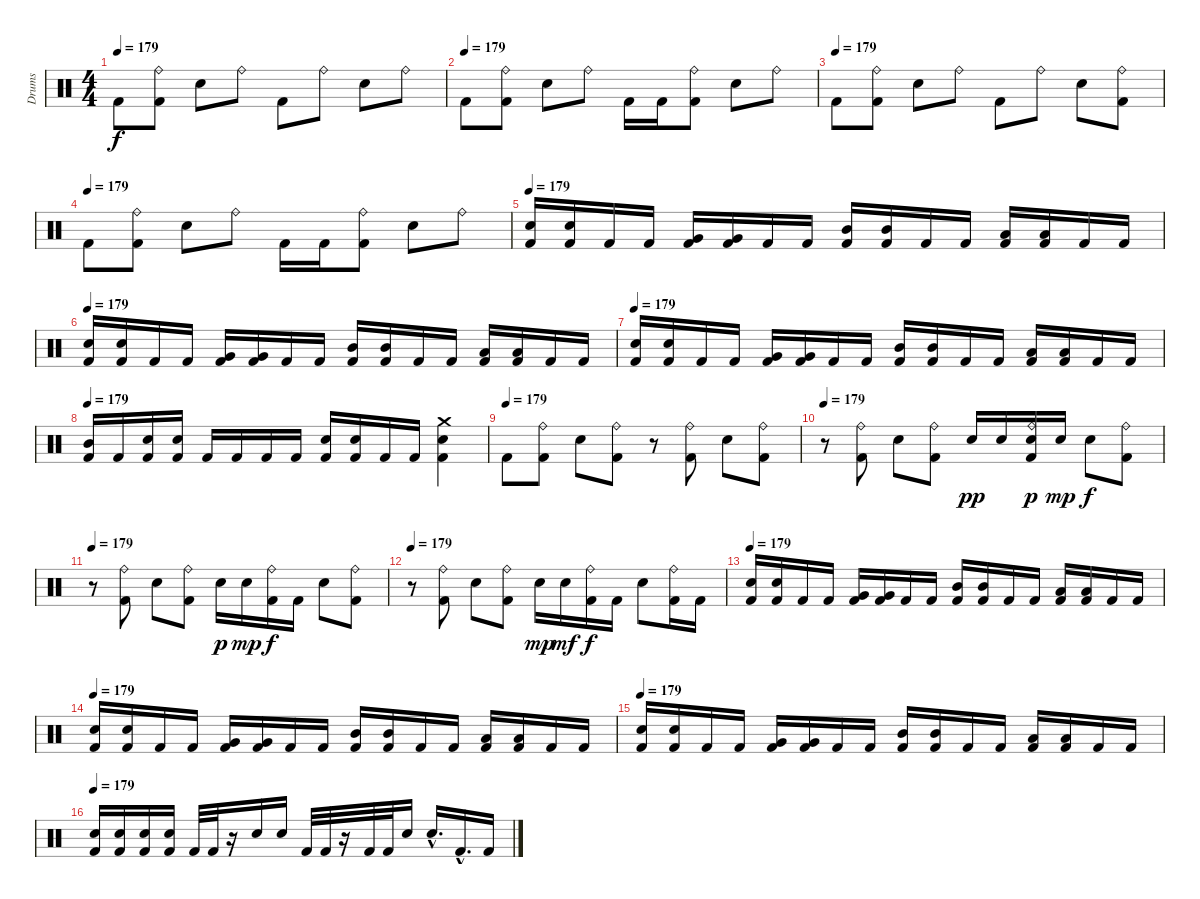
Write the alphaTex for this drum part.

\track ("Drums" "Drums") {instrument percussion}
\staff {score}
\articulation defaults
\ts (4 4)
\tempo 179
\clef neutral
\ks c "Kick (hit) 2".8{dy f}
("Ride (bell)" "Kick (hit) 2").8 "Electric Snare (hit)".8 "Ride (bell)".8 "Kick (hit) 2".8 "Ride (bell)".8 "Electric Snare (hit)".8 "Ride (bell)".8 |
\tempo (179)
"Kick (hit) 2".8 ("Ride (bell)" "Kick (hit) 2").8 "Electric Snare (hit)".8 "Ride (bell)".8 "Kick (hit) 2".16 "Kick (hit) 2".16 ("Ride (bell)" "Kick (hit) 2").8 "Electric Snare (hit)".8 "Ride (bell)".8 |
\tempo (179)
"Kick (hit) 2".8 ("Ride (bell)" "Kick (hit) 2").8 "Electric Snare (hit)".8 "Ride (bell)".8 "Kick (hit) 2".8 "Ride (bell)".8 "Electric Snare (hit)".8 ("Ride (bell)" "Kick (hit) 2").8 |
\tempo (179)
"Kick (hit) 2".8 ("Ride (bell)" "Kick (hit) 2").8 "Electric Snare (hit)".8 "Ride (bell)".8 "Kick (hit) 2".16 "Kick (hit) 2".16 ("Ride (bell)" "Kick (hit) 2").8 "Electric Snare (hit)".8 "Ride (bell)".8 |
\tempo 179
("Electric Snare (hit)" "Kick (hit) 2").16 ("Electric Snare (hit)" "Kick (hit) 2").16 "Kick (hit) 2".16 "Kick (hit) 2".16 ("Very Low Tom (hit)" "Kick (hit) 2").16 ("Very Low Tom (hit)" "Kick (hit) 2").16 "Kick (hit) 2".16 "Kick (hit) 2".16 ("Mid Tom (hit)" "Kick (hit) 2").16 ("Mid Tom (hit)" "Kick (hit) 2").16 "Kick (hit) 2".16 "Kick (hit) 2".16 ("Low Tom (hit)" "Kick (hit) 2").16 ("Low Tom (hit)" "Kick (hit) 2").16 "Kick (hit) 2".16 "Kick (hit) 2".16 |
\tempo 179
("Electric Snare (hit)" "Kick (hit) 2").16 ("Electric Snare (hit)" "Kick (hit) 2").16 "Kick (hit) 2".16 "Kick (hit) 2".16 ("Very Low Tom (hit)" "Kick (hit) 2").16 ("Very Low Tom (hit)" "Kick (hit) 2").16 "Kick (hit) 2".16 "Kick (hit) 2".16 ("Mid Tom (hit)" "Kick (hit) 2").16 ("Mid Tom (hit)" "Kick (hit) 2").16 "Kick (hit) 2".16 "Kick (hit) 2".16 ("Low Tom (hit)" "Kick (hit) 2").16 ("Low Tom (hit)" "Kick (hit) 2").16 "Kick (hit) 2".16 "Kick (hit) 2".16 |
\tempo 179
("Electric Snare (hit)" "Kick (hit) 2").16 ("Electric Snare (hit)" "Kick (hit) 2").16 "Kick (hit) 2".16 "Kick (hit) 2".16 ("Very Low Tom (hit)" "Kick (hit) 2").16 ("Very Low Tom (hit)" "Kick (hit) 2").16 "Kick (hit) 2".16 "Kick (hit) 2".16 ("Mid Tom (hit)" "Kick (hit) 2").16 ("Mid Tom (hit)" "Kick (hit) 2").16 "Kick (hit) 2".16 "Kick (hit) 2".16 ("Low Tom (hit)" "Kick (hit) 2").16 ("Low Tom (hit)" "Kick (hit) 2").16 "Kick (hit) 2".16 "Kick (hit) 2".16 |
\tempo 179
("Mid Tom (hit)" "Kick (hit) 2").16 "Kick (hit) 2".16 ("Electric Snare (hit)" "Kick (hit) 2").16 ("Electric Snare (hit)" "Kick (hit) 2").16 "Kick (hit) 2".16 "Kick (hit) 2".16 "Kick (hit) 2".16 "Kick (hit) 2".16 ("Electric Snare (hit)" "Kick (hit) 2").16 ("Electric Snare (hit)" "Kick (hit) 2").16 "Kick (hit) 2".16 "Kick (hit) 2".16 ("Crash medium (hit)" "Electric Snare (hit)" "Kick (hit) 2").4 |
\tempo (179)
"Kick (hit) 2".8 ("Ride (bell)" "Kick (hit) 2").8 "Electric Snare (hit)".8 ("Ride (bell)" "Kick (hit) 2").8 r.8 ("Ride (bell)" "Kick (hit) 2").8 "Electric Snare (hit)".8 ("Ride (bell)" "Kick (hit) 2").8 |
\tempo 179
r.8 ("Ride (bell)" "Kick (hit) 2").8 "Electric Snare (hit)".8 ("Ride (bell)" "Kick (hit) 2").8 "Electric Snare (hit)".16{dy pp} "Electric Snare (hit)".16 ("Ride (bell)" "Electric Snare (hit)" "Kick (hit) 2").16{dy p} "Electric Snare (hit)".16{dy mp} "Electric Snare (hit)".8{dy f} ("Ride (bell)" "Kick (hit) 2").8 |
\tempo 179
r.8 ("Ride (bell)" "Kick (hit) 2").8 "Electric Snare (hit)".8 ("Ride (bell)" "Kick (hit) 2").8 "Electric Snare (hit)".16{dy p} "Electric Snare (hit)".16{dy mp} ("Ride (bell)" "Kick (hit) 2").16{dy f} "Kick (hit) 2".16 "Electric Snare (hit)".8 ("Ride (bell)" "Kick (hit) 2").8 |
\tempo 179
r.8 ("Ride (bell)" "Kick (hit) 2").8 "Electric Snare (hit)".8 ("Ride (bell)" "Kick (hit) 2").8 "Electric Snare (hit)".16{dy mp} "Electric Snare (hit)".16{dy mf} ("Ride (bell)" "Kick (hit) 2").16{dy f} "Kick (hit) 2".16 "Electric Snare (hit)".8 ("Ride (bell)" "Kick (hit) 2").16 "Kick (hit) 2".16 |
\tempo 179
("Electric Snare (hit)" "Kick (hit) 2").16 ("Electric Snare (hit)" "Kick (hit) 2").16 "Kick (hit) 2".16 "Kick (hit) 2".16 ("Very Low Tom (hit)" "Kick (hit) 2").16 ("Very Low Tom (hit)" "Kick (hit) 2").16 "Kick (hit) 2".16 "Kick (hit) 2".16 ("Mid Tom (hit)" "Kick (hit) 2").16 ("Mid Tom (hit)" "Kick (hit) 2").16 "Kick (hit) 2".16 "Kick (hit) 2".16 ("Low Tom (hit)" "Kick (hit) 2").16 ("Low Tom (hit)" "Kick (hit) 2").16 "Kick (hit) 2".16 "Kick (hit) 2".16 |
\tempo 179
("Electric Snare (hit)" "Kick (hit) 2").16 ("Electric Snare (hit)" "Kick (hit) 2").16 "Kick (hit) 2".16 "Kick (hit) 2".16 ("Very Low Tom (hit)" "Kick (hit) 2").16 ("Very Low Tom (hit)" "Kick (hit) 2").16 "Kick (hit) 2".16 "Kick (hit) 2".16 ("Mid Tom (hit)" "Kick (hit) 2").16 ("Mid Tom (hit)" "Kick (hit) 2").16 "Kick (hit) 2".16 "Kick (hit) 2".16 ("Low Tom (hit)" "Kick (hit) 2").16 ("Low Tom (hit)" "Kick (hit) 2").16 "Kick (hit) 2".16 "Kick (hit) 2".16 |
\tempo 179
("Electric Snare (hit)" "Kick (hit) 2").16 ("Electric Snare (hit)" "Kick (hit) 2").16 "Kick (hit) 2".16 "Kick (hit) 2".16 ("Very Low Tom (hit)" "Kick (hit) 2").16 ("Very Low Tom (hit)" "Kick (hit) 2").16 "Kick (hit) 2".16 "Kick (hit) 2".16 ("Mid Tom (hit)" "Kick (hit) 2").16 ("Mid Tom (hit)" "Kick (hit) 2").16 "Kick (hit) 2".16 "Kick (hit) 2".16 ("Low Tom (hit)" "Kick (hit) 2").16 ("Low Tom (hit)" "Kick (hit) 2").16 "Kick (hit) 2".16 "Kick (hit) 2".16 |
\tempo 179
("Electric Snare (hit)" "Kick (hit) 2").16 ("Electric Snare (hit)" "Kick (hit) 2").16 ("Electric Snare (hit)" "Kick (hit) 2").16 ("Electric Snare (hit)" "Kick (hit) 2").16 "Kick (hit) 2".32 "Kick (hit) 2".32 r.16 "Electric Snare (hit)".16 "Electric Snare (hit)".16 "Kick (hit) 2".32 "Kick (hit) 2".32 r.16 "Kick (hit) 2".32 "Kick (hit) 2".32 "Electric Snare (hit)".16 "Electric Snare (hit)"{hac}.16{d} "Kick (hit) 2"{hac}.16{d} "Kick (hit) 2".16
